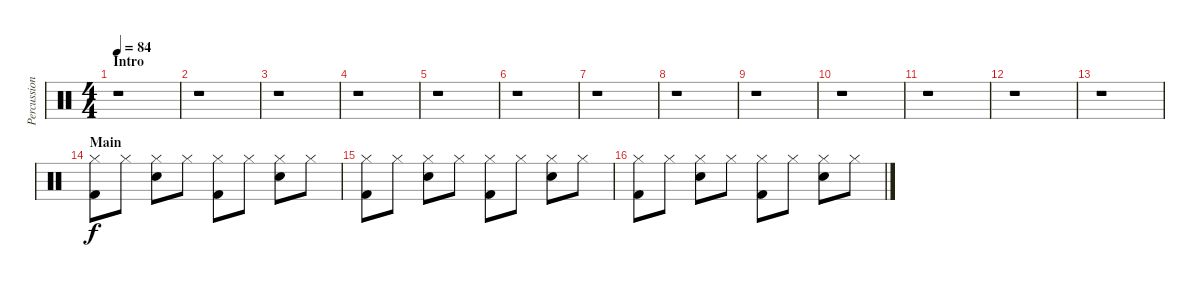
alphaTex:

\track ("Percussion" "Percussion") {instrument percussion}
\staff {score}
\articulation defaults
\ts (4 4)
\section ("" "Intro")
\tempo 84
\clef neutral
\ks c
r.1{dy f} |
r.1 |
r.1 |
r.1 |
r.1 |
r.1 |
r.1 |
r.1 |
r.1 |
r.1 |
r.1 |
r.1 |
r.1 |
\section ("" "Main")
("Hi-Hat (closed)" "Kick (hit) 2").8 "Hi-Hat (closed)".8 ("Hi-Hat (closed)" "Electric Snare (hit)").8 "Hi-Hat (closed)".8 ("Hi-Hat (closed)" "Kick (hit) 2").8 "Hi-Hat (closed)".8 ("Hi-Hat (closed)" "Electric Snare (hit)").8 "Hi-Hat (closed)".8 |
("Hi-Hat (closed)" "Kick (hit) 2").8 "Hi-Hat (closed)".8 ("Hi-Hat (closed)" "Electric Snare (hit)").8 "Hi-Hat (closed)".8 ("Hi-Hat (closed)" "Kick (hit) 2").8 "Hi-Hat (closed)".8 ("Hi-Hat (closed)" "Electric Snare (hit)").8 "Hi-Hat (closed)".8 |
("Hi-Hat (closed)" "Kick (hit) 2").8 "Hi-Hat (closed)".8 ("Hi-Hat (closed)" "Electric Snare (hit)").8 "Hi-Hat (closed)".8 ("Hi-Hat (closed)" "Kick (hit) 2").8 "Hi-Hat (closed)".8 ("Hi-Hat (closed)" "Electric Snare (hit)").8 "Hi-Hat (closed)".8
